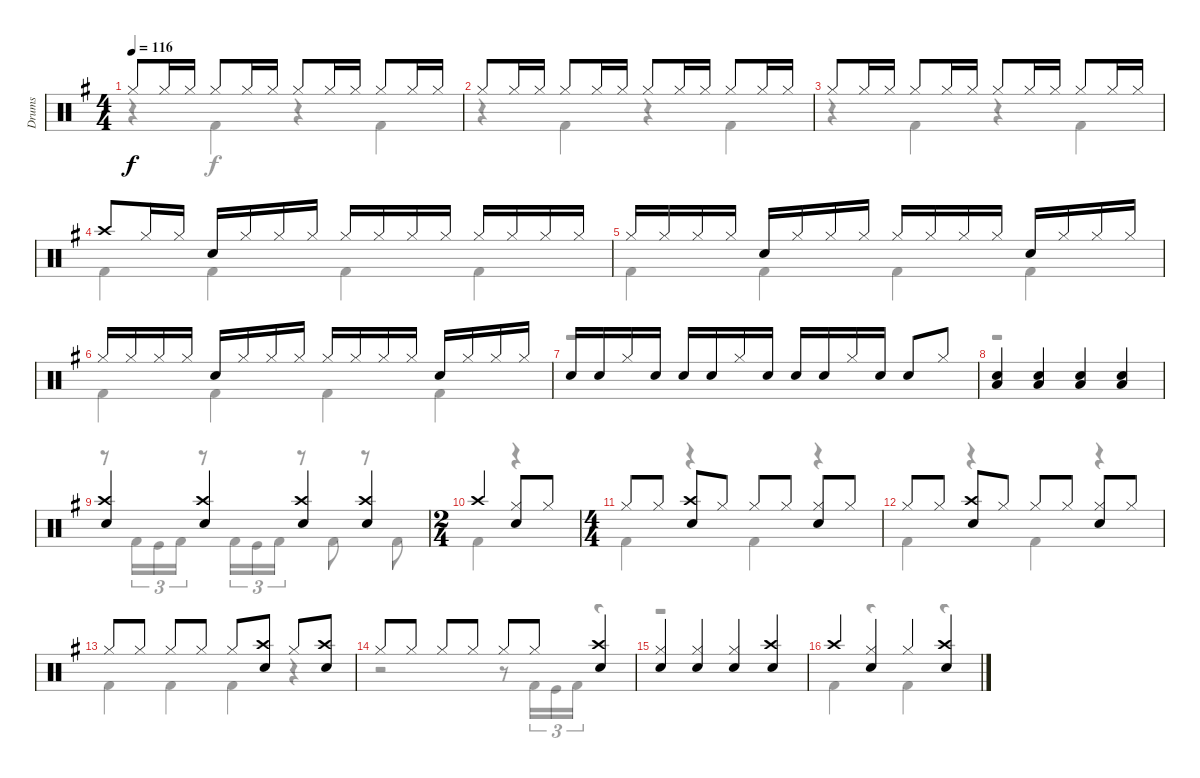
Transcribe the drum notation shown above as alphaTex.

\track ("Drums" "Drums") {instrument percussion}
\staff {score}
\articulation defaults
\voice
\ts (4 4)
\tempo 116
\clef neutral
\ks g "Hi-Hat (closed)".8{dy f} "Hi-Hat (closed)".16 "Hi-Hat (closed)".16 "Hi-Hat (closed)".8 "Hi-Hat (closed)".16 "Hi-Hat (closed)".16 "Hi-Hat (closed)".8 "Hi-Hat (closed)".16 "Hi-Hat (closed)".16 "Hi-Hat (closed)".8 "Hi-Hat (closed)".16 "Hi-Hat (closed)".16
|
"Hi-Hat (closed)".8 "Hi-Hat (closed)".16 "Hi-Hat (closed)".16 "Hi-Hat (closed)".8 "Hi-Hat (closed)".16 "Hi-Hat (closed)".16 "Hi-Hat (closed)".8 "Hi-Hat (closed)".16 "Hi-Hat (closed)".16 "Hi-Hat (closed)".8 "Hi-Hat (closed)".16 "Hi-Hat (closed)".16 |
"Hi-Hat (closed)".8 "Hi-Hat (closed)".16 "Hi-Hat (closed)".16 "Hi-Hat (closed)".8 "Hi-Hat (closed)".16 "Hi-Hat (closed)".16 "Hi-Hat (closed)".8 "Hi-Hat (closed)".16 "Hi-Hat (closed)".16 "Hi-Hat (closed)".8 "Hi-Hat (closed)".16 "Hi-Hat (closed)".16 |
"Crash high (hit)".8 "Hi-Hat (closed)".16 "Hi-Hat (closed)".16 "Snare (hit) 2".16 "Hi-Hat (closed)".16 "Hi-Hat (closed)".16 "Hi-Hat (closed)".16 "Hi-Hat (closed)".16 "Hi-Hat (closed)".16 "Hi-Hat (closed)".16 "Hi-Hat (closed)".16 "Hi-Hat (closed)".16 "Hi-Hat (closed)".16 "Hi-Hat (closed)".16 "Hi-Hat (closed)".16 |
"Hi-Hat (closed)".16 "Hi-Hat (closed)".16 "Hi-Hat (closed)".16 "Hi-Hat (closed)".16 "Snare (hit) 2".16 "Hi-Hat (closed)".16 "Hi-Hat (closed)".16 "Hi-Hat (closed)".16 "Hi-Hat (closed)".16 "Hi-Hat (closed)".16 "Hi-Hat (closed)".16 "Hi-Hat (closed)".16 "Snare (hit) 2".16 "Hi-Hat (closed)".16 "Hi-Hat (closed)".16 "Hi-Hat (closed)".16 |
"Hi-Hat (closed)".16 "Hi-Hat (closed)".16 "Hi-Hat (closed)".16 "Hi-Hat (closed)".16 "Snare (hit) 2".16 "Hi-Hat (closed)".16 "Hi-Hat (closed)".16 "Hi-Hat (closed)".16 "Hi-Hat (closed)".16 "Hi-Hat (closed)".16 "Hi-Hat (closed)".16 "Hi-Hat (closed)".16 "Snare (hit) 2".16 "Hi-Hat (closed)".16 "Hi-Hat (closed)".16 "Hi-Hat (closed)".16 |
"Snare (hit) 2".16 "Snare (hit) 2".16 "Hi-Hat (closed)".16 "Snare (hit) 2".16 "Snare (hit) 2".16 "Snare (hit) 2".16 "Hi-Hat (closed)".16 "Snare (hit) 2".16 "Snare (hit) 2".16 "Snare (hit) 2".16 "Hi-Hat (closed)".16 "Snare (hit) 2".16 "Snare (hit) 2".8 "Hi-Hat (closed)".8 |
("Low Floor Tom (hit)" "Snare (hit) 2").4 ("Low Floor Tom (hit)" "Snare (hit) 2").4 ("Low Floor Tom (hit)" "Snare (hit) 2").4 ("Low Floor Tom (hit)" "Snare (hit) 2").4 |
("Crash high (hit)" "Snare (hit) 2").4 ("Crash high (hit)" "Snare (hit) 2").4 ("Crash high (hit)" "Snare (hit) 2").4 ("Crash high (hit)" "Snare (hit) 2").4 |
\ts (2 4)
"Crash high (hit)".4 ("Hi-Hat (closed)" "Snare (hit) 2").8 "Hi-Hat (closed)".8 |
\ts (4 4)
"Hi-Hat (closed)".8 "Hi-Hat (closed)".8 ("Crash high (hit)" "Snare (hit) 2").8 "Hi-Hat (closed)".8 "Hi-Hat (closed)".8 "Hi-Hat (closed)".8 ("Hi-Hat (closed)" "Snare (hit) 2").8 "Hi-Hat (closed)".8 |
"Hi-Hat (closed)".8 "Hi-Hat (closed)".8 ("Crash high (hit)" "Snare (hit) 2").8 "Hi-Hat (closed)".8 "Hi-Hat (closed)".8 "Hi-Hat (closed)".8 ("Hi-Hat (closed)" "Snare (hit) 2").8 "Hi-Hat (closed)".8 |
"Hi-Hat (closed)".8 "Hi-Hat (closed)".8 "Hi-Hat (closed)".8 "Hi-Hat (closed)".8 "Hi-Hat (closed)".8 ("Crash high (hit)" "Snare (hit) 2").8 "Hi-Hat (closed)".8 ("Crash high (hit)" "Snare (hit) 2").8 |
"Hi-Hat (closed)".8 "Hi-Hat (closed)".8 "Hi-Hat (closed)".8 "Hi-Hat (closed)".8 "Hi-Hat (closed)".8 "Hi-Hat (closed)".8 ("Crash high (hit)" "Snare (hit) 2").4 |
("Hi-Hat (closed)" "Snare (hit) 2").4 ("Hi-Hat (closed)" "Snare (hit) 2").4 ("Hi-Hat (closed)" "Snare (hit) 2").4 ("Crash high (hit)" "Snare (hit) 2").4 |
"Crash high (hit)".4 ("Hi-Hat (closed)" "Snare (hit) 2").4 "Hi-Hat (closed)".4 ("Crash high (hit)" "Snare (hit) 2").4
\voice
\clef neutral
\ottava regular
\simile none
\ks g
r.4{dy f} "Kick (hit) 2".4 r.4 "Kick (hit) 2".4 |
r.4 "Kick (hit) 2".4 r.4 "Kick (hit) 2".4 |
r.4 "Kick (hit) 2".4 r.4 "Kick (hit) 2".4 |
"Kick (hit) 2".4 "Kick (hit) 2".4 "Kick (hit) 2".4 "Kick (hit) 2".4 |
"Kick (hit) 2".4 "Kick (hit) 2".4 "Kick (hit) 2".4 "Kick (hit) 2".4 |
"Kick (hit) 2".4 "Kick (hit) 2".4 "Kick (hit) 2".4 "Kick (hit) 2".4 |
r.1 |
r.1 |
r.8 "Kick (hit) 2".16{tu (3 2)} "Kick (hit)".16{tu (3 2)} "Kick (hit) 2".16{tu (3 2)} r.8 "Kick (hit) 2".16{tu (3 2)} "Kick (hit)".16{tu (3 2)} "Kick (hit) 2".16{tu (3 2)} r.8 "Kick (hit) 2".8 r.8 "Kick (hit) 2".8 |
"Kick (hit) 2".4 r.4 |
"Kick (hit) 2".4 r.4 "Kick (hit) 2".4 r.4 |
"Kick (hit) 2".4 r.4 "Kick (hit) 2".4 r.4 |
"Kick (hit) 2".4 "Kick (hit) 2".4 "Kick (hit) 2".4 r.4 |
r.2 r.8 "Kick (hit) 2".16{tu (3 2)} "Kick (hit)".16{tu (3 2)} "Kick (hit) 2".16{tu (3 2)} r.4 |
r.1 |
"Kick (hit) 2".4 r.4 "Kick (hit) 2".4 r.4
